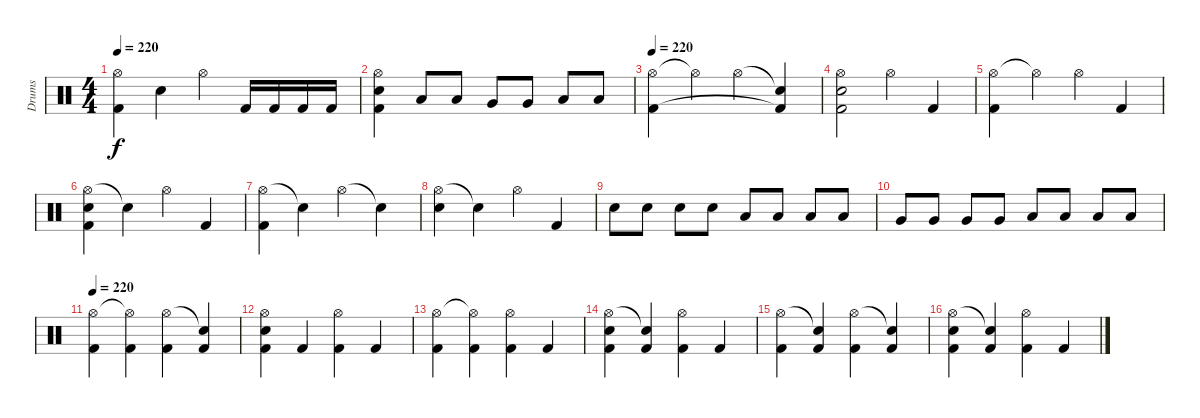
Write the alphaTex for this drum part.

\track ("Drums" "Drums") {instrument percussion}
\staff {score}
\articulation defaults
\ts (4 4)
\tempo 220
\clef neutral
\ks c
("Hi-Hat (open)" "Kick (hit) 2").4{dy f} "Snare (hit) 2".4 "Hi-Hat (open)".4 "Kick (hit) 2".16 "Kick (hit) 2".16 "Kick (hit) 2".16 "Kick (hit) 2".16 |
("Hi-Hat (open)" "Snare (hit) 2" "Kick (hit) 2").4 "Low Tom (hit)".8 "Low Tom (hit)".8 "Very Low Tom (hit)".8 "Very Low Tom (hit)".8 "Low Floor Tom (hit)".8 "Low Floor Tom (hit)".8 |
\tempo 250
\tempo 220
("Hi-Hat (open)" "Kick (hit) 2").4 "Hi-Hat (open)"{t}.4 "Hi-Hat (open)".4 ("Snare (hit)"{t} "Kick (hit) 2"{t}).4 |
("Hi-Hat (open)" "Snare (hit) 2" "Kick (hit) 2").2 "Hi-Hat (open)".4 "Kick (hit) 2".4 |
("Hi-Hat (open)" "Kick (hit) 2").4 "Hi-Hat (open)"{t}.4 "Hi-Hat (open)".4 "Kick (hit) 2".4 |
("Hi-Hat (open)" "Snare (hit) 2" "Kick (hit) 2").4 "Snare (hit)"{t}.4 "Hi-Hat (open)".4 "Kick (hit) 2".4 |
("Hi-Hat (open)" "Kick (hit) 2").4 "Snare (hit)"{t}.4 "Hi-Hat (open)".4 "Snare (hit)"{t}.4 |
("Hi-Hat (open)" "Snare (hit) 2").4 "Snare (hit)"{t}.4 "Hi-Hat (open)".4 "Kick (hit) 2".4 |
"Snare (hit) 2".8 "Snare (hit) 2".8 "Snare (hit) 2".8 "Snare (hit) 2".8 "Low Tom (hit)".8 "Low Tom (hit)".8 "Low Tom (hit)".8 "Low Tom (hit)".8 |
"Very Low Tom (hit)".8 "Very Low Tom (hit)".8 "Very Low Tom (hit)".8 "Very Low Tom (hit)".8 "Low Floor Tom (hit)".8 "Low Floor Tom (hit)".8 "Low Floor Tom (hit)".8 "Low Floor Tom (hit)".8 |
\tempo 250
\tempo 220
("Hi-Hat (open)" "Kick (hit) 2").4 ("Hi-Hat (open)"{t} "Kick (hit) 2").4 ("Hi-Hat (open)" "Kick (hit) 2").4 ("Snare (hit)"{t} "Kick (hit) 2").4 |
("Hi-Hat (open)" "Snare (hit) 2" "Kick (hit) 2").4 "Kick (hit) 2".4 ("Hi-Hat (open)" "Kick (hit) 2").4 "Kick (hit) 2".4 |
("Hi-Hat (open)" "Kick (hit) 2").4 ("Hi-Hat (open)"{t} "Kick (hit) 2").4 ("Hi-Hat (open)" "Kick (hit) 2").4 "Kick (hit) 2".4 |
("Hi-Hat (open)" "Snare (hit) 2" "Kick (hit) 2").4 ("Snare (hit)"{t} "Kick (hit) 2").4 ("Hi-Hat (open)" "Kick (hit) 2").4 "Kick (hit) 2".4 |
("Hi-Hat (open)" "Kick (hit) 2").4 ("Snare (hit)"{t} "Kick (hit) 2").4 ("Hi-Hat (open)" "Kick (hit) 2").4 ("Snare (hit)"{t} "Kick (hit) 2").4 |
("Hi-Hat (open)" "Snare (hit) 2" "Kick (hit) 2").4 ("Snare (hit)"{t} "Kick (hit) 2").4 ("Hi-Hat (open)" "Kick (hit) 2").4 "Kick (hit) 2".4
